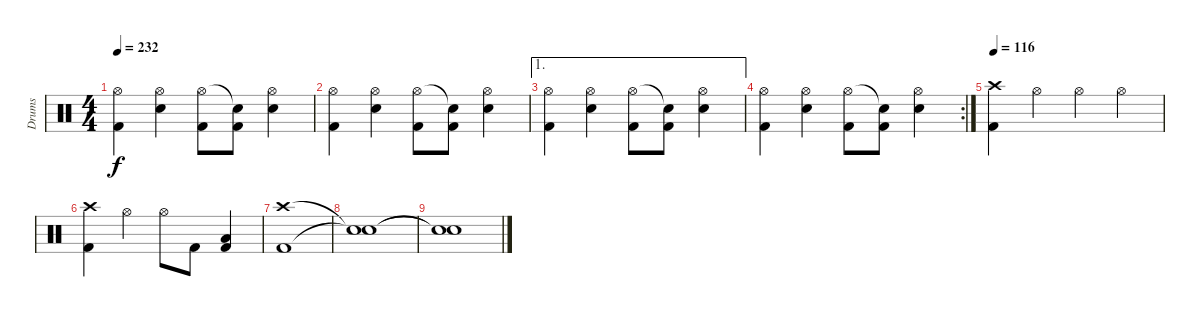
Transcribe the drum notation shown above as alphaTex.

\track ("Drums" "Drums") {instrument percussion}
\staff {score}
\articulation defaults
\ts (4 4)
\tempo 232
\clef neutral
\ks c
("Hi-Hat (open)" "Kick (hit) 2").4{dy f} ("Hi-Hat (open)" "Snare (hit) 2").4 ("Hi-Hat (open)" "Kick (hit) 2").8 ("Snare (hit)"{t} "Kick (hit) 2").8 ("Hi-Hat (open)" "Snare (hit) 2").4 |
("Hi-Hat (open)" "Kick (hit) 2").4 ("Hi-Hat (open)" "Snare (hit) 2").4 ("Hi-Hat (open)" "Kick (hit) 2").8 ("Snare (hit)"{t} "Kick (hit) 2").8 ("Hi-Hat (open)" "Snare (hit) 2").4 |
\ae 1
("Hi-Hat (open)" "Kick (hit) 2").4 ("Hi-Hat (open)" "Snare (hit) 2").4 ("Hi-Hat (open)" "Kick (hit) 2").8 ("Snare (hit)"{t} "Kick (hit) 2").8 ("Hi-Hat (open)" "Snare (hit) 2").4 |
\rc 2
("Hi-Hat (open)" "Kick (hit) 2").4 ("Hi-Hat (open)" "Snare (hit) 2").4 ("Hi-Hat (open)" "Kick (hit) 2").8 ("Snare (hit)"{t} "Kick (hit) 2").8 ("Hi-Hat (open)" "Snare (hit) 2").4 |
\tempo 116
("Crash high (hit)" "Kick (hit) 2").4 "Hi-Hat (open)".4 "Hi-Hat (open)".4 "Hi-Hat (open)".4 |
("Crash high (hit)" "Kick (hit) 2").4 "Hi-Hat (open)".4 "Hi-Hat (open)".8 "Kick (hit) 2".8 ("Low Floor Tom (hit)" "Kick (hit) 2").4 |
("Crash high (hit)" "Kick (hit) 2").1 |
("Snare (hit)"{t} "Snare (hit)"{t}).1 |
("Snare (hit)"{t} "Snare (hit)"{t}).1
